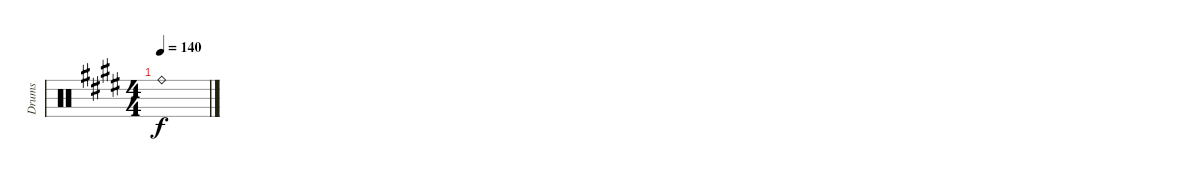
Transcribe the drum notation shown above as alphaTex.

\track ("Drums" "Drums") {instrument percussion}
\staff {score}
\articulation defaults
\ts (4 4)
\tempo 140
\clef neutral
\ks e "Ride (bell)".1{dy f}
